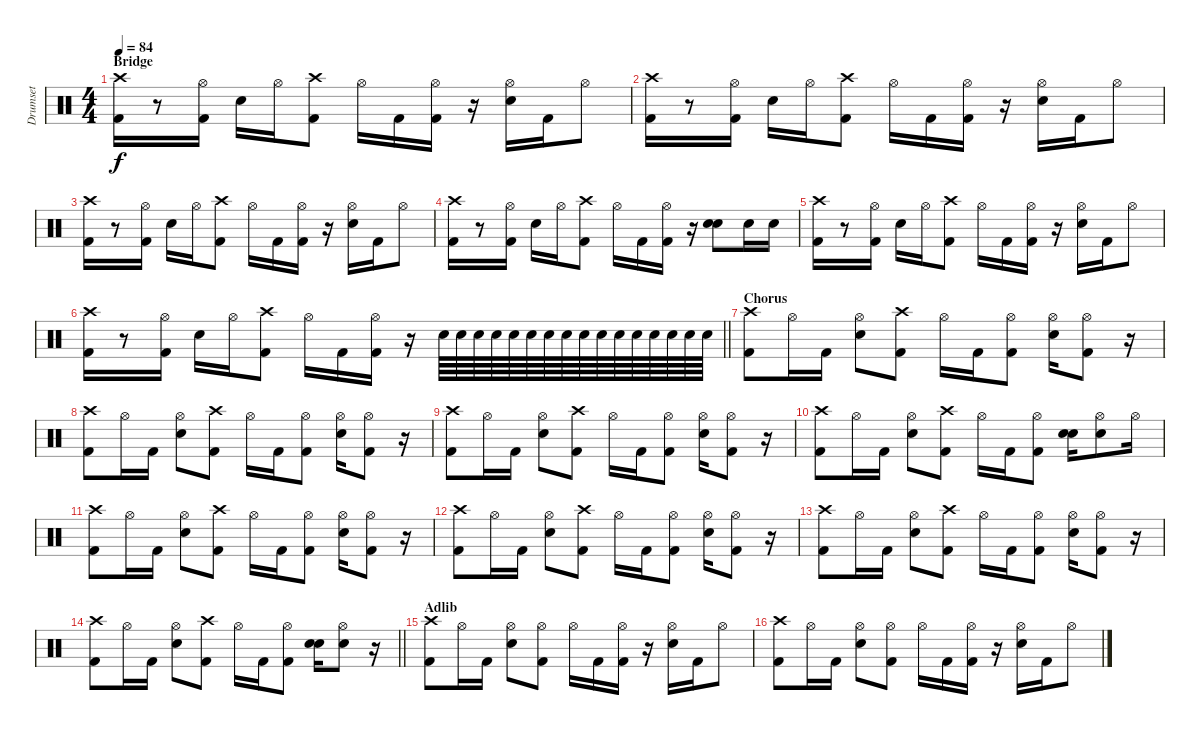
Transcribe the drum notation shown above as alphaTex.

\track ("Drumset" "Drumset") {instrument percussion}
\staff {score}
\articulation defaults
\ts (4 4)
\section ("" "Bridge")
\tempo 84
\clef neutral
\ks c
("Crash high (hit)" "Kick (hit) 2").16{dy f} r.8 ("Hi-Hat (open)" "Kick (hit) 2").16 "Snare (hit) 2".16 "Hi-Hat (open)".16 ("Crash high (hit)" "Kick (hit) 2").8 "Hi-Hat (open)".16 "Kick (hit) 2".16 ("Hi-Hat (open)" "Kick (hit) 2").16 r.16 ("Hi-Hat (open)" "Snare (hit) 2").16 "Kick (hit) 2".16 "Hi-Hat (open)".8 |
("Crash high (hit)" "Kick (hit) 2").16 r.8 ("Hi-Hat (open)" "Kick (hit) 2").16 "Snare (hit) 2".16 "Hi-Hat (open)".16 ("Crash high (hit)" "Kick (hit) 2").8 "Hi-Hat (open)".16 "Kick (hit) 2".16 ("Hi-Hat (open)" "Kick (hit) 2").16 r.16 ("Hi-Hat (open)" "Snare (hit) 2").16 "Kick (hit) 2".16 "Hi-Hat (open)".8 |
("Crash high (hit)" "Kick (hit) 2").16 r.8 ("Hi-Hat (open)" "Kick (hit) 2").16 "Snare (hit) 2".16 "Hi-Hat (open)".16 ("Crash high (hit)" "Kick (hit) 2").8 "Hi-Hat (open)".16 "Kick (hit) 2".16 ("Hi-Hat (open)" "Kick (hit) 2").16 r.16 ("Hi-Hat (open)" "Snare (hit) 2").16 "Kick (hit) 2".16 "Hi-Hat (open)".8 |
("Crash high (hit)" "Kick (hit) 2").16 r.8 ("Hi-Hat (open)" "Kick (hit) 2").16 "Snare (hit) 2".16 "Hi-Hat (open)".16 ("Crash high (hit)" "Kick (hit) 2").8 "Hi-Hat (open)".16 "Kick (hit) 2".16 ("Hi-Hat (open)" "Kick (hit) 2").16 r.16 ("Snare (hit) 2" "Snare (hit) 2").8 "Snare (hit) 2".16 "Snare (hit) 2".16 |
("Crash high (hit)" "Kick (hit) 2").16 r.8 ("Hi-Hat (open)" "Kick (hit) 2").16 "Snare (hit) 2".16 "Hi-Hat (open)".16 ("Crash high (hit)" "Kick (hit) 2").8 "Hi-Hat (open)".16 "Kick (hit) 2".16 ("Hi-Hat (open)" "Kick (hit) 2").16 r.16 ("Hi-Hat (open)" "Snare (hit) 2").16 "Kick (hit) 2".16 "Hi-Hat (open)".8 |
\barLineRight lightlight
("Crash high (hit)" "Kick (hit) 2").16 r.8 ("Hi-Hat (open)" "Kick (hit) 2").16 "Snare (hit) 2".16 "Hi-Hat (open)".16 ("Crash high (hit)" "Kick (hit) 2").8 "Hi-Hat (open)".16 "Kick (hit) 2".16 ("Hi-Hat (open)" "Kick (hit) 2").16 r.16 "Snare (hit) 2".64 "Snare (hit) 2".64 "Snare (hit) 2".64 "Snare (hit) 2".64 "Snare (hit) 2".64 "Snare (hit) 2".64 "Snare (hit) 2".64 "Snare (hit) 2".64 "Snare (hit) 2".64 "Snare (hit) 2".64 "Snare (hit) 2".64 "Snare (hit) 2".64 "Snare (hit) 2".64 "Snare (hit) 2".64 "Snare (hit) 2".64 "Snare (hit) 2".64 |
\section ("" "Chorus")
("Crash high (hit)" "Kick (hit) 2").8 "Hi-Hat (open)".16 "Kick (hit) 2".16 ("Hi-Hat (open)" "Snare (hit) 2").8 ("Crash high (hit)" "Kick (hit) 2").8 "Hi-Hat (open)".16 "Kick (hit) 2".16 ("Hi-Hat (open)" "Kick (hit) 2").8 ("Hi-Hat (open)" "Snare (hit) 2").16 ("Hi-Hat (open)" "Kick (hit) 2").8 r.16 |
("Crash high (hit)" "Kick (hit) 2").8 "Hi-Hat (open)".16 "Kick (hit) 2".16 ("Hi-Hat (open)" "Snare (hit) 2").8 ("Crash high (hit)" "Kick (hit) 2").8 "Hi-Hat (open)".16 "Kick (hit) 2".16 ("Hi-Hat (open)" "Kick (hit) 2").8 ("Hi-Hat (open)" "Snare (hit) 2").16 ("Hi-Hat (open)" "Kick (hit) 2").8 r.16 |
("Crash high (hit)" "Kick (hit) 2").8 "Hi-Hat (open)".16 "Kick (hit) 2".16 ("Hi-Hat (open)" "Snare (hit) 2").8 ("Crash high (hit)" "Kick (hit) 2").8 "Hi-Hat (open)".16 "Kick (hit) 2".16 ("Hi-Hat (open)" "Kick (hit) 2").8 ("Hi-Hat (open)" "Snare (hit) 2").16 ("Hi-Hat (open)" "Kick (hit) 2").8 r.16 |
("Crash high (hit)" "Kick (hit) 2").8 "Hi-Hat (open)".16 "Kick (hit) 2".16 ("Hi-Hat (open)" "Snare (hit) 2").8 ("Crash high (hit)" "Kick (hit) 2").8 "Hi-Hat (open)".16 "Kick (hit) 2".16 ("Hi-Hat (open)" "Kick (hit) 2").8 ("Snare (hit) 2" "Snare (hit) 2").16 ("Hi-Hat (open)" "Snare (hit) 2").8 "Hi-Hat (open)".16 |
("Crash high (hit)" "Kick (hit) 2").8 "Hi-Hat (open)".16 "Kick (hit) 2".16 ("Hi-Hat (open)" "Snare (hit) 2").8 ("Crash high (hit)" "Kick (hit) 2").8 "Hi-Hat (open)".16 "Kick (hit) 2".16 ("Hi-Hat (open)" "Kick (hit) 2").8 ("Hi-Hat (open)" "Snare (hit) 2").16 ("Hi-Hat (open)" "Kick (hit) 2").8 r.16 |
("Crash high (hit)" "Kick (hit) 2").8 "Hi-Hat (open)".16 "Kick (hit) 2".16 ("Hi-Hat (open)" "Snare (hit) 2").8 ("Crash high (hit)" "Kick (hit) 2").8 "Hi-Hat (open)".16 "Kick (hit) 2".16 ("Hi-Hat (open)" "Kick (hit) 2").8 ("Hi-Hat (open)" "Snare (hit) 2").16 ("Hi-Hat (open)" "Kick (hit) 2").8 r.16 |
("Crash high (hit)" "Kick (hit) 2").8 "Hi-Hat (open)".16 "Kick (hit) 2".16 ("Hi-Hat (open)" "Snare (hit) 2").8 ("Crash high (hit)" "Kick (hit) 2").8 "Hi-Hat (open)".16 "Kick (hit) 2".16 ("Hi-Hat (open)" "Kick (hit) 2").8 ("Hi-Hat (open)" "Snare (hit) 2").16 ("Hi-Hat (open)" "Kick (hit) 2").8 r.16 |
\barLineRight lightlight
("Crash high (hit)" "Kick (hit) 2").8 "Hi-Hat (open)".16 "Kick (hit) 2".16 ("Hi-Hat (open)" "Snare (hit) 2").8 ("Crash high (hit)" "Kick (hit) 2").8 "Hi-Hat (open)".16 "Kick (hit) 2".16 ("Hi-Hat (open)" "Kick (hit) 2").8 ("Snare (hit) 2" "Snare (hit) 2").16 ("Hi-Hat (open)" "Snare (hit) 2").8 r.16 |
\section ("" "Adlib")
("Crash high (hit)" "Kick (hit) 2").8 "Hi-Hat (open)".16 "Kick (hit) 2".16 ("Hi-Hat (open)" "Snare (hit) 2").8 ("Hi-Hat (open)" "Kick (hit) 2").8 "Hi-Hat (open)".16 "Kick (hit) 2".16 ("Hi-Hat (open)" "Kick (hit) 2").16 r.16 ("Hi-Hat (open)" "Snare (hit) 2").16 "Kick (hit) 2".16 "Hi-Hat (open)".8 |
("Crash high (hit)" "Kick (hit) 2").8 "Hi-Hat (open)".16 "Kick (hit) 2".16 ("Hi-Hat (open)" "Snare (hit) 2").8 ("Hi-Hat (open)" "Kick (hit) 2").8 "Hi-Hat (open)".16 "Kick (hit) 2".16 ("Hi-Hat (open)" "Kick (hit) 2").16 r.16 ("Hi-Hat (open)" "Snare (hit) 2").16 "Kick (hit) 2".16 "Hi-Hat (open)".8
